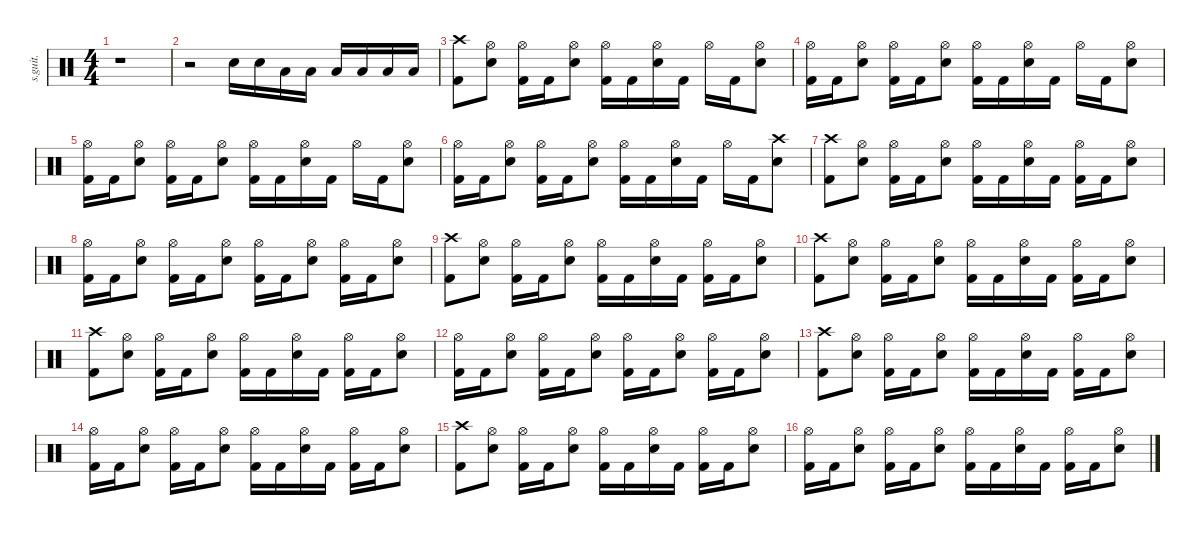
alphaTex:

\defaultSystemsLayout 4
\hideDynamics
\bracketExtendMode nobrackets
\track ("" "s.guit.") {instrument percussion}
\staff {score}
\articulation defaults
\ts (4 4)
\beaming (8 2 2 2 2)
\tempo (150 hide)
\clef neutral
\ks c
r.1{dy f} |
r.2 "Snare (hit) 2".16 "Snare (hit) 2".16 "Low Tom (hit)".16 "Low Tom (hit)".16 "Low Tom (hit)".16 "Low Tom (hit)".16 "Low Floor Tom (hit)".16 "Low Floor Tom (hit)".16 |
("Crash high (hit)" "Kick (hit) 2").8 ("Hi-Hat (open)" "Snare (hit) 2").8 ("Hi-Hat (open)" "Kick (hit) 2").16 "Kick (hit) 2".16 ("Hi-Hat (open)" "Snare (hit) 2").8 ("Hi-Hat (open)" "Kick (hit) 2").16 "Kick (hit) 2".16 ("Hi-Hat (open)" "Snare (hit) 2").16 "Kick (hit) 2".16 "Hi-Hat (open)".16 "Kick (hit) 2".16 ("Hi-Hat (open)" "Snare (hit) 2").8 |
("Hi-Hat (open)" "Kick (hit) 2").16 "Kick (hit) 2".16 ("Hi-Hat (open)" "Snare (hit) 2").8 ("Hi-Hat (open)" "Kick (hit) 2").16 "Kick (hit) 2".16 ("Hi-Hat (open)" "Snare (hit) 2").8 ("Hi-Hat (open)" "Kick (hit) 2").16 "Kick (hit) 2".16 ("Hi-Hat (open)" "Snare (hit) 2").16 "Kick (hit) 2".16 "Hi-Hat (open)".16 "Kick (hit) 2".16 ("Hi-Hat (open)" "Snare (hit) 2").8 |
("Hi-Hat (open)" "Kick (hit) 2").16 "Kick (hit) 2".16 ("Hi-Hat (open)" "Snare (hit) 2").8 ("Hi-Hat (open)" "Kick (hit) 2").16 "Kick (hit) 2".16 ("Hi-Hat (open)" "Snare (hit) 2").8 ("Hi-Hat (open)" "Kick (hit) 2").16 "Kick (hit) 2".16 ("Hi-Hat (open)" "Snare (hit) 2").16 "Kick (hit) 2".16 "Hi-Hat (open)".16 "Kick (hit) 2".16 ("Hi-Hat (open)" "Snare (hit) 2").8 |
("Hi-Hat (open)" "Kick (hit) 2").16 "Kick (hit) 2".16 ("Hi-Hat (open)" "Snare (hit) 2").8 ("Hi-Hat (open)" "Kick (hit) 2").16 "Kick (hit) 2".16 ("Hi-Hat (open)" "Snare (hit) 2").8 ("Hi-Hat (open)" "Kick (hit) 2").16 "Kick (hit) 2".16 ("Hi-Hat (open)" "Snare (hit) 2").16 "Kick (hit) 2".16 "Hi-Hat (open)".16 "Kick (hit) 2".16 ("Crash high (hit)" "Snare (hit) 2").8 |
("Crash high (hit)" "Kick (hit) 2").8 ("Hi-Hat (open)" "Snare (hit) 2").8 ("Hi-Hat (open)" "Kick (hit) 2").16 "Kick (hit) 2".16 ("Hi-Hat (open)" "Snare (hit) 2").8 ("Hi-Hat (open)" "Kick (hit) 2").16 "Kick (hit) 2".16 ("Hi-Hat (open)" "Snare (hit) 2").16 "Kick (hit) 2".16 ("Hi-Hat (open)" "Kick (hit) 2").16 "Kick (hit) 2".16 ("Hi-Hat (open)" "Snare (hit) 2").8 |
("Hi-Hat (open)" "Kick (hit) 2").16 "Kick (hit) 2".16 ("Hi-Hat (open)" "Snare (hit) 2").8 ("Hi-Hat (open)" "Kick (hit) 2").16 "Kick (hit) 2".16 ("Hi-Hat (open)" "Snare (hit) 2").8 ("Hi-Hat (open)" "Kick (hit) 2").16 "Kick (hit) 2".16 ("Hi-Hat (open)" "Snare (hit) 2").8 ("Hi-Hat (open)" "Kick (hit) 2").16 "Kick (hit) 2".16 ("Hi-Hat (open)" "Snare (hit) 2").8 |
("Crash high (hit)" "Kick (hit) 2").8 ("Hi-Hat (open)" "Snare (hit) 2").8 ("Hi-Hat (open)" "Kick (hit) 2").16 "Kick (hit) 2".16 ("Hi-Hat (open)" "Snare (hit) 2").8 ("Hi-Hat (open)" "Kick (hit) 2").16 "Kick (hit) 2".16 ("Hi-Hat (open)" "Snare (hit) 2").16 "Kick (hit) 2".16 ("Hi-Hat (open)" "Kick (hit) 2").16 "Kick (hit) 2".16 ("Hi-Hat (open)" "Snare (hit) 2").8 |
("Crash high (hit)" "Kick (hit) 2").8 ("Hi-Hat (open)" "Snare (hit) 2").8 ("Hi-Hat (open)" "Kick (hit) 2").16 "Kick (hit) 2".16 ("Hi-Hat (open)" "Snare (hit) 2").8 ("Hi-Hat (open)" "Kick (hit) 2").16 "Kick (hit) 2".16 ("Hi-Hat (open)" "Snare (hit) 2").16 "Kick (hit) 2".16 ("Hi-Hat (open)" "Kick (hit) 2").16 "Kick (hit) 2".16 ("Hi-Hat (open)" "Snare (hit) 2").8 |
("Crash high (hit)" "Kick (hit) 2").8 ("Hi-Hat (open)" "Snare (hit) 2").8 ("Hi-Hat (open)" "Kick (hit) 2").16 "Kick (hit) 2".16 ("Hi-Hat (open)" "Snare (hit) 2").8 ("Hi-Hat (open)" "Kick (hit) 2").16 "Kick (hit) 2".16 ("Hi-Hat (open)" "Snare (hit) 2").16 "Kick (hit) 2".16 ("Hi-Hat (open)" "Kick (hit) 2").16 "Kick (hit) 2".16 ("Hi-Hat (open)" "Snare (hit) 2").8 |
("Hi-Hat (open)" "Kick (hit) 2").16 "Kick (hit) 2".16 ("Hi-Hat (open)" "Snare (hit) 2").8 ("Hi-Hat (open)" "Kick (hit) 2").16 "Kick (hit) 2".16 ("Hi-Hat (open)" "Snare (hit) 2").8 ("Hi-Hat (open)" "Kick (hit) 2").16 "Kick (hit) 2".16 ("Hi-Hat (open)" "Snare (hit) 2").8 ("Hi-Hat (open)" "Kick (hit) 2").16 "Kick (hit) 2".16 ("Hi-Hat (open)" "Snare (hit) 2").8 |
("Crash high (hit)" "Kick (hit) 2").8 ("Hi-Hat (open)" "Snare (hit) 2").8 ("Hi-Hat (open)" "Kick (hit) 2").16 "Kick (hit) 2".16 ("Hi-Hat (open)" "Snare (hit) 2").8 ("Hi-Hat (open)" "Kick (hit) 2").16 "Kick (hit) 2".16 ("Hi-Hat (open)" "Snare (hit) 2").16 "Kick (hit) 2".16 ("Hi-Hat (open)" "Kick (hit) 2").16 "Kick (hit) 2".16 ("Hi-Hat (open)" "Snare (hit) 2").8 |
("Hi-Hat (open)" "Kick (hit) 2").16 "Kick (hit) 2".16 ("Hi-Hat (open)" "Snare (hit) 2").8 ("Hi-Hat (open)" "Kick (hit) 2").16 "Kick (hit) 2".16 ("Hi-Hat (open)" "Snare (hit) 2").8 ("Hi-Hat (open)" "Kick (hit) 2").16 "Kick (hit) 2".16 ("Hi-Hat (open)" "Snare (hit) 2").16 "Kick (hit) 2".16 ("Hi-Hat (open)" "Kick (hit) 2").16 "Kick (hit) 2".16 ("Hi-Hat (open)" "Snare (hit) 2").8 |
("Crash high (hit)" "Kick (hit) 2").8 ("Hi-Hat (open)" "Snare (hit) 2").8 ("Hi-Hat (open)" "Kick (hit) 2").16 "Kick (hit) 2".16 ("Hi-Hat (open)" "Snare (hit) 2").8 ("Hi-Hat (open)" "Kick (hit) 2").16 "Kick (hit) 2".16 ("Hi-Hat (open)" "Snare (hit) 2").16 "Kick (hit) 2".16 ("Hi-Hat (open)" "Kick (hit) 2").16 "Kick (hit) 2".16 ("Hi-Hat (open)" "Snare (hit) 2").8 |
("Hi-Hat (open)" "Kick (hit) 2").16 "Kick (hit) 2".16 ("Hi-Hat (open)" "Snare (hit) 2").8 ("Hi-Hat (open)" "Kick (hit) 2").16 "Kick (hit) 2".16 ("Hi-Hat (open)" "Snare (hit) 2").8 ("Hi-Hat (open)" "Kick (hit) 2").16 "Kick (hit) 2".16 ("Hi-Hat (open)" "Snare (hit) 2").16 "Kick (hit) 2".16 ("Hi-Hat (open)" "Kick (hit) 2").16 "Kick (hit) 2".16 ("Hi-Hat (open)" "Snare (hit) 2").8
